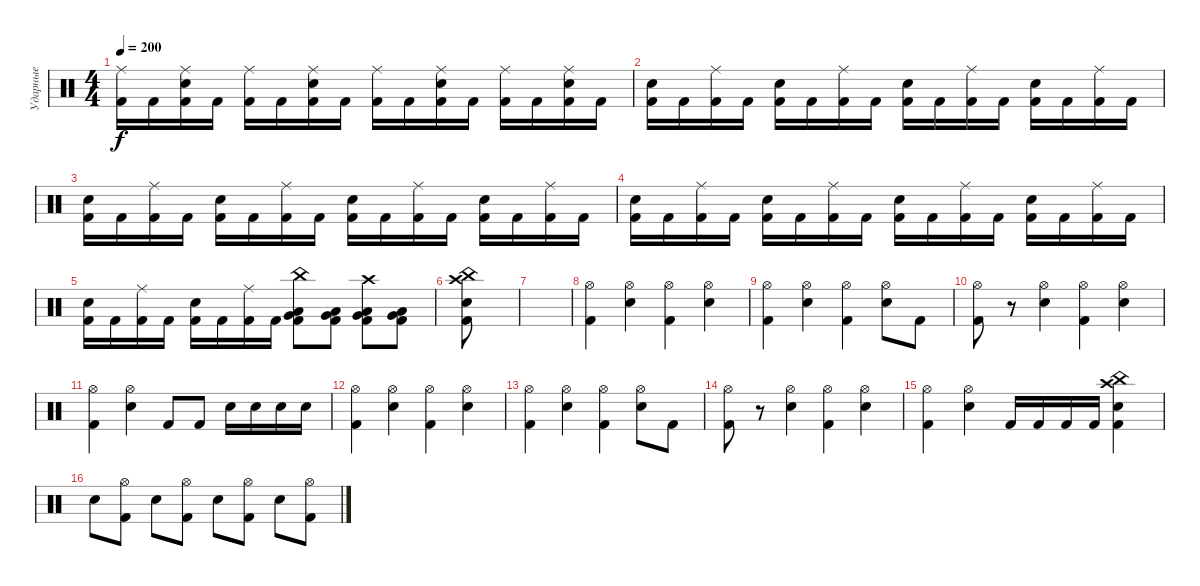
\track ("Ударные" "Ударные") {instrument percussion}
\staff {score}
\articulation defaults
\ts (4 4)
\tempo 200
\clef neutral
\ks c
("Kick (hit) 2" "Ride (middle)").16{dy f} "Kick (hit) 2".16 ("Kick (hit) 2" "Electric Snare (hit)" "Ride (middle)").16 "Kick (hit) 2".16 ("Kick (hit) 2" "Ride (middle)").16 "Kick (hit) 2".16 ("Kick (hit) 2" "Electric Snare (hit)" "Ride (middle)").16 "Kick (hit) 2".16 ("Kick (hit) 2" "Ride (middle)").16 "Kick (hit) 2".16 ("Kick (hit) 2" "Electric Snare (hit)" "Ride (middle)").16 "Kick (hit) 2".16 ("Kick (hit) 2" "Ride (middle)").16 "Kick (hit) 2".16 ("Kick (hit) 2" "Electric Snare (hit)" "Ride (middle)").16 "Kick (hit) 2".16 |
("Kick (hit) 2" "Electric Snare (hit)").16 "Kick (hit) 2".16 ("Kick (hit) 2" "Ride (middle)").16 "Kick (hit) 2".16 ("Kick (hit) 2" "Electric Snare (hit)").16 "Kick (hit) 2".16 ("Kick (hit) 2" "Ride (middle)").16 "Kick (hit) 2".16 ("Kick (hit) 2" "Electric Snare (hit)").16 "Kick (hit) 2".16 ("Kick (hit) 2" "Ride (middle)").16 "Kick (hit) 2".16 ("Kick (hit) 2" "Electric Snare (hit)").16 "Kick (hit) 2".16 ("Kick (hit) 2" "Ride (middle)").16 "Kick (hit) 2".16 |
("Kick (hit) 2" "Electric Snare (hit)").16 "Kick (hit) 2".16 ("Kick (hit) 2" "Ride (middle)").16 "Kick (hit) 2".16 ("Kick (hit) 2" "Electric Snare (hit)").16 "Kick (hit) 2".16 ("Kick (hit) 2" "Ride (middle)").16 "Kick (hit) 2".16 ("Kick (hit) 2" "Electric Snare (hit)").16 "Kick (hit) 2".16 ("Kick (hit) 2" "Ride (middle)").16 "Kick (hit) 2".16 ("Kick (hit) 2" "Electric Snare (hit)").16 "Kick (hit) 2".16 ("Kick (hit) 2" "Ride (middle)").16 "Kick (hit) 2".16 |
("Kick (hit) 2" "Electric Snare (hit)").16 "Kick (hit) 2".16 ("Kick (hit) 2" "Ride (middle)").16 "Kick (hit) 2".16 ("Kick (hit) 2" "Electric Snare (hit)").16 "Kick (hit) 2".16 ("Kick (hit) 2" "Ride (middle)").16 "Kick (hit) 2".16 ("Kick (hit) 2" "Electric Snare (hit)").16 "Kick (hit) 2".16 ("Kick (hit) 2" "Ride (middle)").16 "Kick (hit) 2".16 ("Kick (hit) 2" "Electric Snare (hit)").16 "Kick (hit) 2".16 ("Kick (hit) 2" "Ride (middle)").16 "Kick (hit) 2".16 |
("Kick (hit) 2" "Electric Snare (hit)").16 "Kick (hit) 2".16 ("Kick (hit) 2" "Ride (middle)").16 "Kick (hit) 2".16 ("Kick (hit) 2" "Electric Snare (hit)").16 "Kick (hit) 2".16 ("Kick (hit) 2" "Ride (middle)").16 "Kick (hit) 2".16 ("Kick (hit) 2" "Low Floor Tom (hit)" "Very Low Tom (hit)" "China (hit)").8 ("Kick (hit) 2" "Low Floor Tom (hit)" "Very Low Tom (hit)").8 ("Kick (hit) 2" "Low Floor Tom (hit)" "Very Low Tom (hit)" "Crash high (hit)").8 ("Kick (hit) 2" "Low Floor Tom (hit)" "Very Low Tom (hit)").8 |
("China (hit)" "Crash high (hit)" "Kick (hit) 2" "Electric Snare (hit)").8 |
|
("Kick (hit) 2" "Hi-Hat (open)").4 ("Electric Snare (hit)" "Hi-Hat (open)").4 ("Kick (hit) 2" "Hi-Hat (open)").4 ("Electric Snare (hit)" "Hi-Hat (open)").4 |
("Kick (hit) 2" "Hi-Hat (open)").4 ("Electric Snare (hit)" "Hi-Hat (open)").4 ("Kick (hit) 2" "Hi-Hat (open)").4 ("Electric Snare (hit)" "Hi-Hat (open)").8 "Kick (hit) 2".8 |
("Kick (hit) 2" "Hi-Hat (open)").8 r.8 ("Electric Snare (hit)" "Hi-Hat (open)").4 ("Kick (hit) 2" "Hi-Hat (open)").4 ("Electric Snare (hit)" "Hi-Hat (open)").4 |
("Kick (hit) 2" "Hi-Hat (open)").4 ("Electric Snare (hit)" "Hi-Hat (open)").4 "Kick (hit) 2".8 "Kick (hit) 2".8 "Electric Snare (hit)".16 "Electric Snare (hit)".16 "Electric Snare (hit)".16 "Electric Snare (hit)".16 |
("Kick (hit) 2" "Hi-Hat (open)").4 ("Electric Snare (hit)" "Hi-Hat (open)").4 ("Kick (hit) 2" "Hi-Hat (open)").4 ("Electric Snare (hit)" "Hi-Hat (open)").4 |
("Kick (hit) 2" "Hi-Hat (open)").4 ("Electric Snare (hit)" "Hi-Hat (open)").4 ("Kick (hit) 2" "Hi-Hat (open)").4 ("Electric Snare (hit)" "Hi-Hat (open)").8 "Kick (hit) 2".8 |
("Kick (hit) 2" "Hi-Hat (open)").8 r.8 ("Electric Snare (hit)" "Hi-Hat (open)").4 ("Kick (hit) 2" "Hi-Hat (open)").4 ("Electric Snare (hit)" "Hi-Hat (open)").4 |
("Kick (hit) 2" "Hi-Hat (open)").4 ("Electric Snare (hit)" "Hi-Hat (open)").4 "Kick (hit) 2".16 "Kick (hit) 2".16 "Kick (hit) 2".16 "Kick (hit) 2".16 ("Kick (hit) 2" "Electric Snare (hit)" "Crash high (hit)" "China (hit)").4 |
"Electric Snare (hit)".8 ("Kick (hit) 2" "Hi-Hat (open)").8 "Electric Snare (hit)".8 ("Kick (hit) 2" "Hi-Hat (open)").8 "Electric Snare (hit)".8 ("Kick (hit) 2" "Hi-Hat (open)").8 "Electric Snare (hit)".8 ("Kick (hit) 2" "Hi-Hat (open)").8
